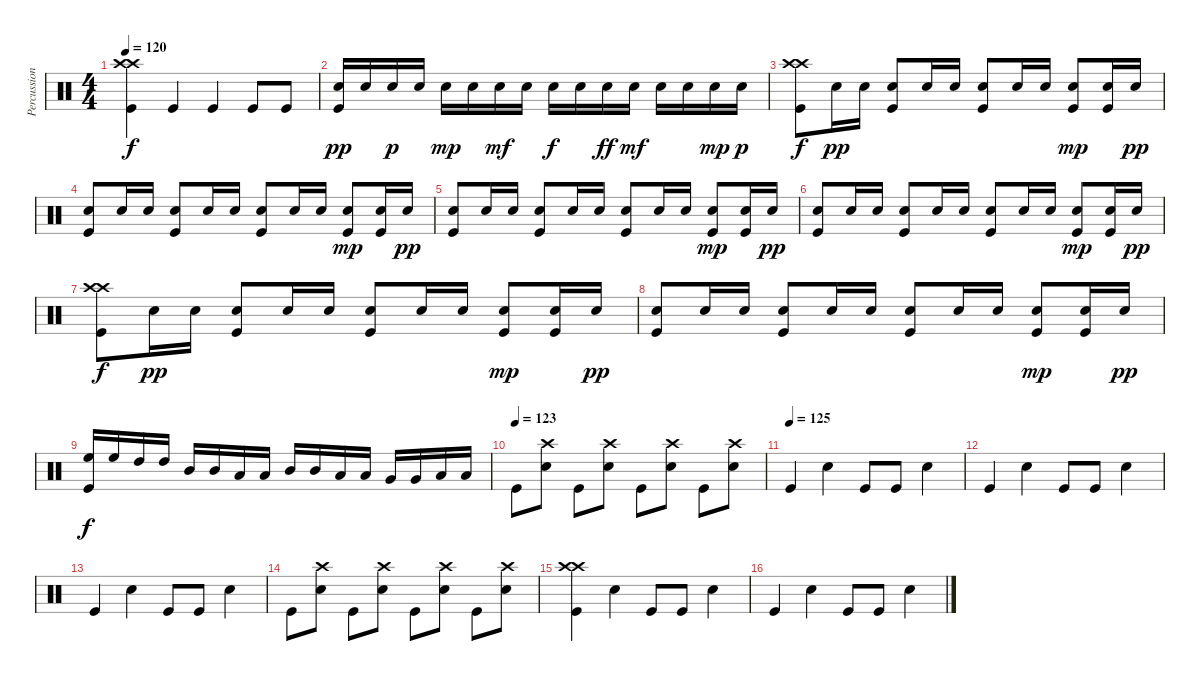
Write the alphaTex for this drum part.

\track ("Percussion" "Percussion") {instrument percussion}
\staff {score}
\articulation defaults
\ts (4 4)
\tempo 120
\clef neutral
\ks c
("Crash high (hit)" "Crash high (hit)" "Kick (hit)").4{dy f} "Kick (hit)".4 "Kick (hit)".4 "Kick (hit)".8 "Kick (hit)".8 |
("Snare (hit) 2" "Kick (hit)").16{dy pp} "Snare (hit) 2".16 "Snare (hit) 2".16{dy p} "Snare (hit) 2".16 "Snare (hit) 2".16{dy mp} "Snare (hit) 2".16 "Snare (hit) 2".16{dy mf} "Snare (hit) 2".16 "Snare (hit) 2".16{dy f} "Snare (hit) 2".16 "Snare (hit) 2".16{dy ff} "Snare (hit) 2".16{dy mf} "Snare (hit) 2".16 "Snare (hit) 2".16 "Snare (hit) 2".16{dy mp} "Snare (hit) 2".16{dy p} |
("Crash high (hit)" "Crash high (hit)" "Kick (hit)").8{dy f} "Snare (hit) 2".16{dy pp} "Snare (hit) 2".16 ("Snare (hit) 2" "Kick (hit)").8 "Snare (hit) 2".16 "Snare (hit) 2".16 ("Snare (hit) 2" "Kick (hit)").8 "Snare (hit) 2".16 "Snare (hit) 2".16 ("Snare (hit) 2" "Kick (hit)").8{dy mp} ("Snare (hit) 2" "Kick (hit)").16 "Snare (hit) 2".16{dy pp} |
("Snare (hit) 2" "Kick (hit)").8 "Snare (hit) 2".16 "Snare (hit) 2".16 ("Snare (hit) 2" "Kick (hit)").8 "Snare (hit) 2".16 "Snare (hit) 2".16 ("Snare (hit) 2" "Kick (hit)").8 "Snare (hit) 2".16 "Snare (hit) 2".16 ("Snare (hit) 2" "Kick (hit)").8{dy mp} ("Snare (hit) 2" "Kick (hit)").16 "Snare (hit) 2".16{dy pp} |
("Snare (hit) 2" "Kick (hit)").8 "Snare (hit) 2".16 "Snare (hit) 2".16 ("Snare (hit) 2" "Kick (hit)").8 "Snare (hit) 2".16 "Snare (hit) 2".16 ("Snare (hit) 2" "Kick (hit)").8 "Snare (hit) 2".16 "Snare (hit) 2".16 ("Snare (hit) 2" "Kick (hit)").8{dy mp} ("Snare (hit) 2" "Kick (hit)").16 "Snare (hit) 2".16{dy pp} |
("Snare (hit) 2" "Kick (hit)").8 "Snare (hit) 2".16 "Snare (hit) 2".16 ("Snare (hit) 2" "Kick (hit)").8 "Snare (hit) 2".16 "Snare (hit) 2".16 ("Snare (hit) 2" "Kick (hit)").8 "Snare (hit) 2".16 "Snare (hit) 2".16 ("Snare (hit) 2" "Kick (hit)").8{dy mp} ("Snare (hit) 2" "Kick (hit)").16 "Snare (hit) 2".16{dy pp} |
("Crash high (hit)" "Crash high (hit)" "Kick (hit)").8{dy f} "Snare (hit) 2".16{dy pp} "Snare (hit) 2".16 ("Snare (hit) 2" "Kick (hit)").8 "Snare (hit) 2".16 "Snare (hit) 2".16 ("Snare (hit) 2" "Kick (hit)").8 "Snare (hit) 2".16 "Snare (hit) 2".16 ("Snare (hit) 2" "Kick (hit)").8{dy mp} ("Snare (hit) 2" "Kick (hit)").16 "Snare (hit) 2".16{dy pp} |
("Snare (hit) 2" "Kick (hit)").8 "Snare (hit) 2".16 "Snare (hit) 2".16 ("Snare (hit) 2" "Kick (hit)").8 "Snare (hit) 2".16 "Snare (hit) 2".16 ("Snare (hit) 2" "Kick (hit)").8 "Snare (hit) 2".16 "Snare (hit) 2".16 ("Snare (hit) 2" "Kick (hit)").8{dy mp} ("Snare (hit) 2" "Kick (hit)").16 "Snare (hit) 2".16{dy pp} |
("High Floor Tom (hit)" "Kick (hit)").16{dy f} "High Floor Tom (hit)".16 "High Tom (hit)".16 "High Tom (hit)".16 "Mid Tom (hit)".16 "Mid Tom (hit)".16 "Low Tom (hit)".16 "Low Tom (hit)".16 "Mid Tom (hit)".16 "Mid Tom (hit)".16 "Low Tom (hit)".16 "Low Tom (hit)".16 "Very Low Tom (hit)".16 "Very Low Tom (hit)".16 "Low Floor Tom (hit)".16 "Low Floor Tom (hit)".16 |
\tempo (123)
"Kick (hit)".8 ("Crash high (hit)" "Snare (hit) 2").8 "Kick (hit)".8 ("Crash high (hit)" "Snare (hit) 2").8 "Kick (hit)".8 ("Crash high (hit)" "Snare (hit) 2").8 "Kick (hit)".8 ("Crash high (hit)" "Snare (hit) 2").8 |
\tempo (125)
"Kick (hit)".4 "Snare (hit) 2".4 "Kick (hit)".8 "Kick (hit)".8 "Snare (hit) 2".4 |
"Kick (hit)".4 "Snare (hit) 2".4 "Kick (hit)".8 "Kick (hit)".8 "Snare (hit) 2".4 |
"Kick (hit)".4 "Snare (hit) 2".4 "Kick (hit)".8 "Kick (hit)".8 "Snare (hit) 2".4 |
"Kick (hit)".8 ("Crash high (hit)" "Snare (hit) 2").8 "Kick (hit)".8 ("Crash high (hit)" "Snare (hit) 2").8 "Kick (hit)".8 ("Crash high (hit)" "Snare (hit) 2").8 "Kick (hit)".8 ("Crash high (hit)" "Snare (hit) 2").8 |
("Crash high (hit)" "Crash high (hit)" "Kick (hit)").4 "Snare (hit) 2".4 "Kick (hit)".8 "Kick (hit)".8 "Snare (hit) 2".4 |
"Kick (hit)".4 "Snare (hit) 2".4 "Kick (hit)".8 "Kick (hit)".8 "Snare (hit) 2".4
